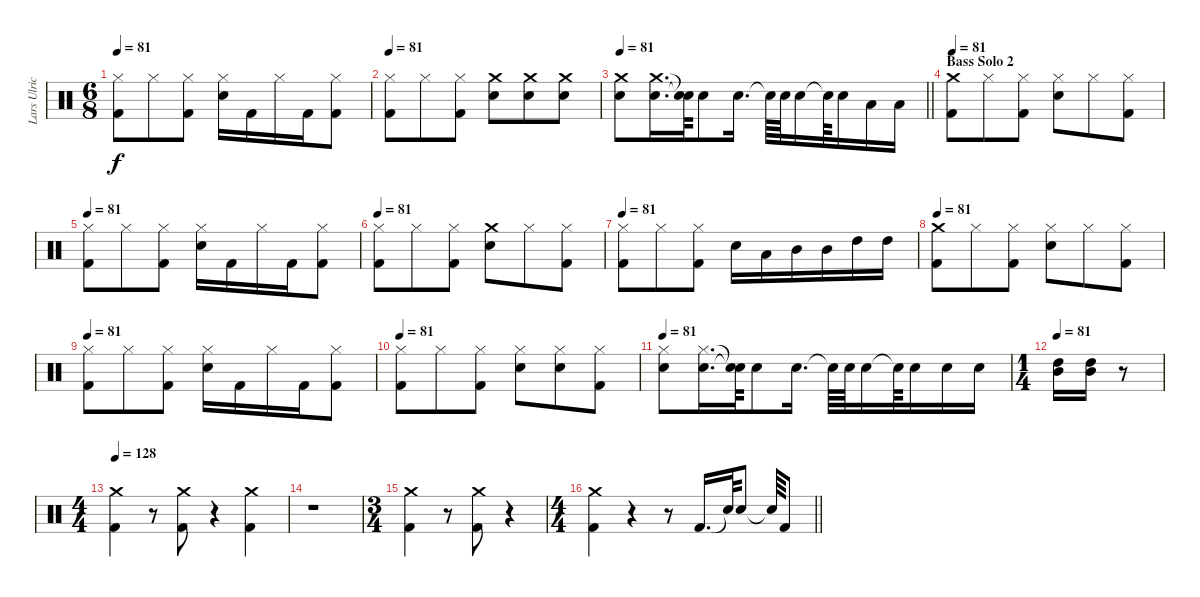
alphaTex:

\track ("Lars Ulrich (Drums)" "Lars Ulric") {instrument percussion}
\staff {score}
\articulation defaults
\ts (6 8)
\tempo 81
\clef neutral
\ks c
("Hi-Hat (closed)" "Kick (hit) 2").8{dy f} "Hi-Hat (closed)".8 ("Kick (hit) 2" "Hi-Hat (closed)").8 ("Snare (hit) 2" "Hi-Hat (closed)").16 "Kick (hit) 2".16 "Hi-Hat (closed)".16 "Kick (hit) 2".16 ("Kick (hit) 2" "Hi-Hat (closed)").8 |
\tempo 81
("Hi-Hat (closed)" "Kick (hit) 2").8 "Hi-Hat (closed)".8 ("Kick (hit) 2" "Hi-Hat (closed)").8 ("Crash medium (hit)" "Snare (hit) 2").8 ("Crash medium (hit)" "Snare (hit) 2").8 ("Crash medium (hit)" "Snare (hit) 2").8 |
\tempo 81
\barLineRight lightlight
("Snare (hit) 2" "Crash medium (hit)").8 ("Snare (hit) 2" "Crash medium (hit)").16{d} ("Snare (hit)"{t} "Snare (hit)"{t}).64 "Snare (hit) 2".8 "Snare (hit) 2".16{d} "Snare (hit)"{t}.64 "Snare (hit) 2".64 "Snare (hit) 2".16 "Snare (hit)"{t}.64 "Snare (hit) 2".16 "Low Tom (hit)".16 "Low Tom (hit)".16 |
\section ("" "Bass Solo 2")
\tempo 81
("Kick (hit) 2" "Crash medium (hit)").8 "Hi-Hat (closed)".8 ("Kick (hit) 2" "Hi-Hat (closed)").8 ("Snare (hit) 2" "Hi-Hat (closed)").8 "Hi-Hat (closed)".8 ("Kick (hit) 2" "Hi-Hat (closed)").8 |
\tempo 81
("Hi-Hat (closed)" "Kick (hit) 2").8 "Hi-Hat (closed)".8 ("Kick (hit) 2" "Hi-Hat (closed)").8 ("Snare (hit) 2" "Hi-Hat (closed)").16 "Kick (hit) 2".16 "Hi-Hat (closed)".16 "Kick (hit) 2".16 ("Kick (hit) 2" "Hi-Hat (closed)").8 |
\tempo 81
("Hi-Hat (closed)" "Kick (hit) 2").8 "Hi-Hat (closed)".8 ("Hi-Hat (closed)" "Kick (hit) 2").8 ("Crash medium (hit)" "Snare (hit) 2").8 "Hi-Hat (closed)".8 ("Hi-Hat (closed)" "Kick (hit) 2").8 |
\tempo 81
("Hi-Hat (closed)" "Kick (hit) 2").8 "Hi-Hat (closed)".8 ("Kick (hit) 2" "Hi-Hat (closed)").8 "Snare (hit) 2".16 "Low Tom (hit)".16 "Mid Tom (hit)".16 "Mid Tom (hit)".16 "High Tom (hit)".16 "High Tom (hit)".16 |
\tempo 81
("Kick (hit) 2" "Crash medium (hit)").8 "Hi-Hat (closed)".8 ("Kick (hit) 2" "Hi-Hat (closed)").8 ("Snare (hit) 2" "Hi-Hat (closed)").8 "Hi-Hat (closed)".8 ("Kick (hit) 2" "Hi-Hat (closed)").8 |
\tempo 81
("Hi-Hat (closed)" "Kick (hit) 2").8 "Hi-Hat (closed)".8 ("Kick (hit) 2" "Hi-Hat (closed)").8 ("Snare (hit) 2" "Hi-Hat (closed)").16 "Kick (hit) 2".16 "Hi-Hat (closed)".16 "Kick (hit) 2".16 ("Kick (hit) 2" "Hi-Hat (closed)").8 |
\tempo 81
("Kick (hit) 2" "Hi-Hat (closed)").8 "Hi-Hat (closed)".8 ("Kick (hit) 2" "Hi-Hat (closed)").8 ("Snare (hit) 2" "Hi-Hat (closed)").8 ("Hi-Hat (closed)" "Snare (hit) 2").8 ("Kick (hit) 2" "Hi-Hat (closed)").8 |
\tempo 81
("Hi-Hat (closed)" "Snare (hit) 2").8 ("Hi-Hat (closed)" "Snare (hit) 2").16{d} ("Snare (hit)"{t} "Snare (hit)"{t}).64 "Snare (hit) 2".8 "Snare (hit) 2".16{d} "Snare (hit)"{t}.64 "Snare (hit) 2".64 "Snare (hit) 2".16 "Snare (hit)"{t}.64 "Snare (hit) 2".16 "Snare (hit) 2".16 "Snare (hit) 2".16 |
\ts (1 4)
\tempo 81
("High Tom (hit)" "Mid Tom (hit)").16 ("High Tom (hit)" "Mid Tom (hit)").16 r.8 |
\ts (4 4)
\tempo 128
("Kick (hit) 2" "Crash medium (hit)").4 r.8 ("Kick (hit) 2" "Crash medium (hit)").8 r.4 ("Kick (hit) 2" "Crash medium (hit)").4 |
r.1 |
\ts (3 4)
("Kick (hit) 2" "Crash medium (hit)").4 r.8 ("Kick (hit) 2" "Crash medium (hit)").8 r.4 |
\ts (4 4)
\barLineRight lightlight
("Kick (hit) 2" "Crash medium (hit)").4 r.4 r.8 "Kick (hit) 2".16{d} "Snare (hit)"{t}.64 "Snare (hit) 2".8 "Snare (hit)"{t}.64 "Kick (hit) 2".8
